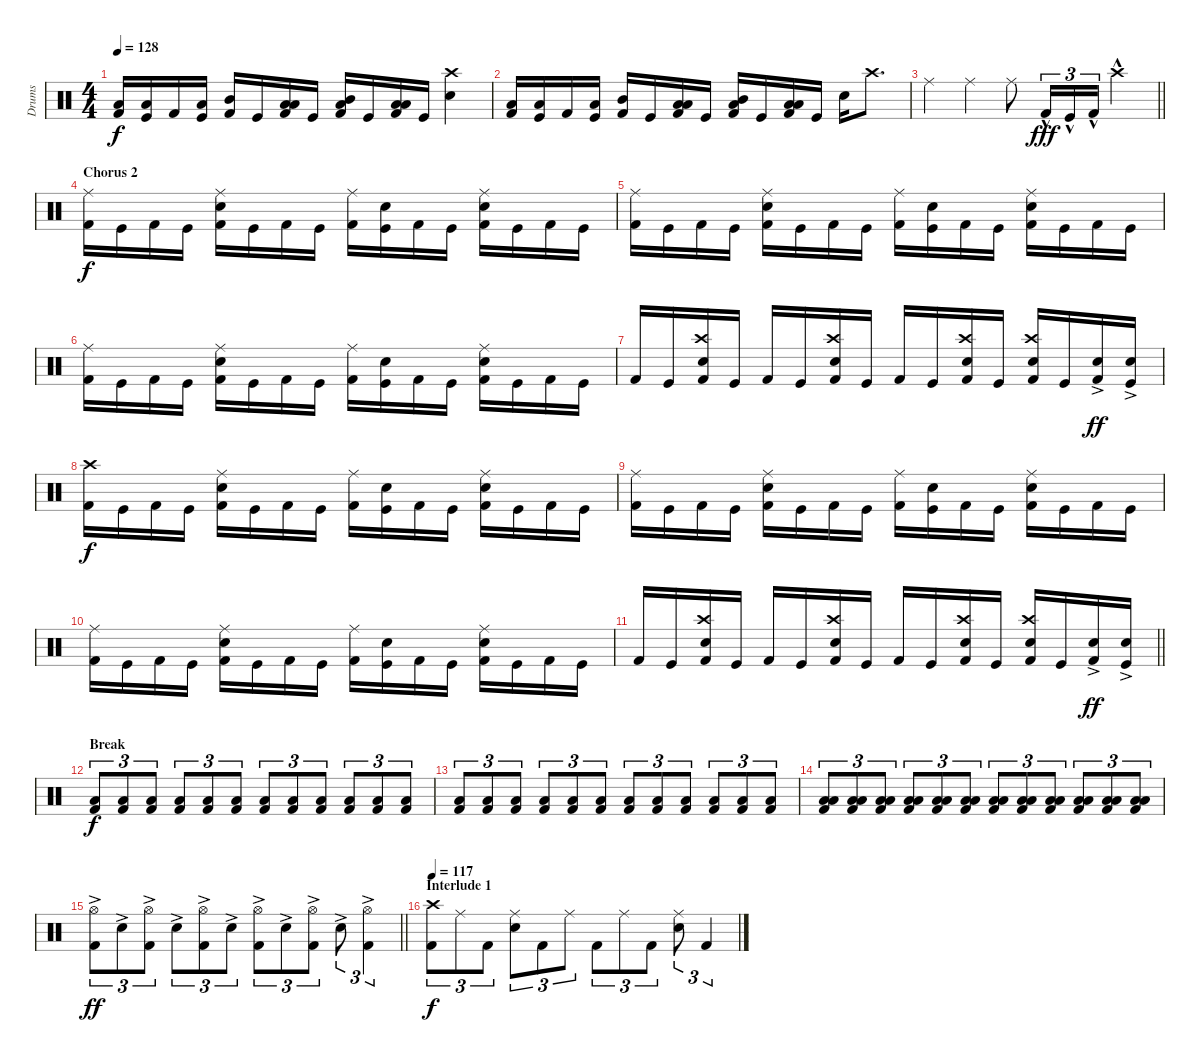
\track ("Drums" "Drums") {instrument percussion}
\staff {score}
\articulation defaults
\ts (4 4)
\tempo 128
\clef neutral
\ks c
("Low Floor Tom (hit)" "Kick (hit) 2").16{dy f} ("Low Tom (hit)" "Kick (hit)").16 "Kick (hit) 2".16 ("Low Floor Tom (hit)" "Kick (hit)").16 ("Mid Tom (hit)" "Kick (hit) 2").16 "Kick (hit)".16 ("Low Tom (hit)" "Low Floor Tom (hit)" "Kick (hit) 2").16 "Kick (hit)".16 ("Mid Tom (hit)" "Low Tom (hit)" "Kick (hit) 2").16 "Kick (hit)".16 ("Low Tom (hit)" "Low Floor Tom (hit)" "Kick (hit) 2").16 "Kick (hit)".16 ("Crash high (hit)" "Electric Snare (hit)").4 |
("Low Floor Tom (hit)" "Kick (hit) 2").16 ("Low Tom (hit)" "Kick (hit)").16 "Kick (hit) 2".16 ("Low Floor Tom (hit)" "Kick (hit)").16 ("Mid Tom (hit)" "Kick (hit) 2").16 "Kick (hit)".16 ("Low Tom (hit)" "Low Floor Tom (hit)" "Kick (hit) 2").16 "Kick (hit)".16 ("Mid Tom (hit)" "Low Tom (hit)" "Kick (hit) 2").16 "Kick (hit)".16 ("Low Tom (hit)" "Low Floor Tom (hit)" "Kick (hit) 2").16 "Kick (hit)".16 "Electric Snare (hit)".16 "Crash high (hit)".8{d} |
\barLineRight lightlight "Ride (middle)".4 "Ride (middle)".4 "Ride (middle)".8 "Kick (hit) 2"{hac}.16{tu (3 2) dy fff} "Kick (hit)"{hac}.16{tu (3 2)} "Kick (hit) 2"{hac}.16{tu (3 2)} "Crash high (hit)"{hac}.4
|
\section ("" "Chorus 2")
("Ride (middle)" "Kick (hit) 2").16{dy f} "Kick (hit)".16 "Kick (hit) 2".16 "Kick (hit)".16 ("Ride (middle)" "Electric Snare (hit)" "Kick (hit) 2").16 "Kick (hit)".16 "Kick (hit) 2".16 "Kick (hit)".16 ("Ride (middle)" "Kick (hit) 2").16 ("Electric Snare (hit)" "Kick (hit)").16 "Kick (hit) 2".16 "Kick (hit)".16 ("Ride (middle)" "Electric Snare (hit)" "Kick (hit) 2").16 "Kick (hit)".16 "Kick (hit) 2".16 "Kick (hit)".16 |
("Ride (middle)" "Kick (hit) 2").16 "Kick (hit)".16 "Kick (hit) 2".16 "Kick (hit)".16 ("Ride (middle)" "Electric Snare (hit)" "Kick (hit) 2").16 "Kick (hit)".16 "Kick (hit) 2".16 "Kick (hit)".16 ("Ride (middle)" "Kick (hit) 2").16 ("Electric Snare (hit)" "Kick (hit)").16 "Kick (hit) 2".16 "Kick (hit)".16 ("Ride (middle)" "Electric Snare (hit)" "Kick (hit) 2").16 "Kick (hit)".16 "Kick (hit) 2".16 "Kick (hit)".16 |
("Ride (middle)" "Kick (hit) 2").16 "Kick (hit)".16 "Kick (hit) 2".16 "Kick (hit)".16 ("Ride (middle)" "Electric Snare (hit)" "Kick (hit) 2").16 "Kick (hit)".16 "Kick (hit) 2".16 "Kick (hit)".16 ("Ride (middle)" "Kick (hit) 2").16 ("Electric Snare (hit)" "Kick (hit)").16 "Kick (hit) 2".16 "Kick (hit)".16 ("Ride (middle)" "Electric Snare (hit)" "Kick (hit) 2").16 "Kick (hit)".16 "Kick (hit) 2".16 "Kick (hit)".16 |
"Kick (hit) 2".16 "Kick (hit)".16 ("Crash high (hit)" "Electric Snare (hit)" "Kick (hit) 2").16 "Kick (hit)".16 "Kick (hit) 2".16 "Kick (hit)".16 ("Crash high (hit)" "Electric Snare (hit)" "Kick (hit) 2").16 "Kick (hit)".16 "Kick (hit) 2".16 "Kick (hit)".16 ("Crash high (hit)" "Electric Snare (hit)" "Kick (hit) 2").16 "Kick (hit)".16 ("Crash high (hit)" "Electric Snare (hit)" "Kick (hit) 2").16 "Kick (hit)".16 ("Electric Snare (hit)"{ac} "Kick (hit) 2").16{dy ff} ("Electric Snare (hit)"{ac} "Kick (hit)").16 |
("Crash high (hit)" "Kick (hit) 2").16{dy f} "Kick (hit)".16 "Kick (hit) 2".16 "Kick (hit)".16 ("Ride (middle)" "Electric Snare (hit)" "Kick (hit) 2").16 "Kick (hit)".16 "Kick (hit) 2".16 "Kick (hit)".16 ("Ride (middle)" "Kick (hit) 2").16 ("Electric Snare (hit)" "Kick (hit)").16 "Kick (hit) 2".16 "Kick (hit)".16 ("Ride (middle)" "Electric Snare (hit)" "Kick (hit) 2").16 "Kick (hit)".16 "Kick (hit) 2".16 "Kick (hit)".16 |
("Ride (middle)" "Kick (hit) 2").16 "Kick (hit)".16 "Kick (hit) 2".16 "Kick (hit)".16 ("Ride (middle)" "Electric Snare (hit)" "Kick (hit) 2").16 "Kick (hit)".16 "Kick (hit) 2".16 "Kick (hit)".16 ("Ride (middle)" "Kick (hit) 2").16 ("Electric Snare (hit)" "Kick (hit)").16 "Kick (hit) 2".16 "Kick (hit)".16 ("Ride (middle)" "Electric Snare (hit)" "Kick (hit) 2").16 "Kick (hit)".16 "Kick (hit) 2".16 "Kick (hit)".16 |
("Ride (middle)" "Kick (hit) 2").16 "Kick (hit)".16 "Kick (hit) 2".16 "Kick (hit)".16 ("Ride (middle)" "Electric Snare (hit)" "Kick (hit) 2").16 "Kick (hit)".16 "Kick (hit) 2".16 "Kick (hit)".16 ("Ride (middle)" "Kick (hit) 2").16 ("Electric Snare (hit)" "Kick (hit)").16 "Kick (hit) 2".16 "Kick (hit)".16 ("Ride (middle)" "Electric Snare (hit)" "Kick (hit) 2").16 "Kick (hit)".16 "Kick (hit) 2".16 "Kick (hit)".16 |
\barLineRight lightlight "Kick (hit) 2".16 "Kick (hit)".16
("Crash high (hit)" "Electric Snare (hit)" "Kick (hit) 2").16 "Kick (hit)".16 "Kick (hit) 2".16 "Kick (hit)".16 ("Crash high (hit)" "Electric Snare (hit)" "Kick (hit) 2").16 "Kick (hit)".16 "Kick (hit) 2".16 "Kick (hit)".16 ("Crash high (hit)" "Electric Snare (hit)" "Kick (hit) 2").16 "Kick (hit)".16 ("Crash high (hit)" "Electric Snare (hit)" "Kick (hit) 2").16 "Kick (hit)".16 ("Electric Snare (hit)"{ac} "Kick (hit) 2").16{dy ff} ("Electric Snare (hit)"{ac} "Kick (hit)").16 |
\section ("" "Break")
("Low Floor Tom (hit)" "Kick (hit) 2").8{tu (3 2) dy f} ("Low Floor Tom (hit)" "Kick (hit) 2").8{tu (3 2)} ("Low Floor Tom (hit)" "Kick (hit) 2").8{tu (3 2)} ("Low Floor Tom (hit)" "Kick (hit) 2").8{tu (3 2)} ("Low Floor Tom (hit)" "Kick (hit) 2").8{tu (3 2)} ("Low Floor Tom (hit)" "Kick (hit) 2").8{tu (3 2)} ("Low Floor Tom (hit)" "Kick (hit) 2").8{tu (3 2)} ("Low Floor Tom (hit)" "Kick (hit) 2").8{tu (3 2)} ("Low Floor Tom (hit)" "Kick (hit) 2").8{tu (3 2)} ("Low Floor Tom (hit)" "Kick (hit) 2").8{tu (3 2)} ("Low Floor Tom (hit)" "Kick (hit) 2").8{tu (3 2)} ("Low Floor Tom (hit)" "Kick (hit) 2").8{tu (3 2)} |
("Low Floor Tom (hit)" "Kick (hit) 2").8{tu (3 2)} ("Low Floor Tom (hit)" "Kick (hit) 2").8{tu (3 2)} ("Low Floor Tom (hit)" "Kick (hit) 2").8{tu (3 2)} ("Low Floor Tom (hit)" "Kick (hit) 2").8{tu (3 2)} ("Low Floor Tom (hit)" "Kick (hit) 2").8{tu (3 2)} ("Low Floor Tom (hit)" "Kick (hit) 2").8{tu (3 2)} ("Low Floor Tom (hit)" "Kick (hit) 2").8{tu (3 2)} ("Low Floor Tom (hit)" "Kick (hit) 2").8{tu (3 2)} ("Low Floor Tom (hit)" "Kick (hit) 2").8{tu (3 2)} ("Low Floor Tom (hit)" "Kick (hit) 2").8{tu (3 2)} ("Low Floor Tom (hit)" "Kick (hit) 2").8{tu (3 2)} ("Low Floor Tom (hit)" "Kick (hit) 2").8{tu (3 2)} |
("Low Tom (hit)" "Low Floor Tom (hit)" "Kick (hit) 2").8{tu (3 2)} ("Low Tom (hit)" "Low Floor Tom (hit)" "Kick (hit) 2").8{tu (3 2)} ("Low Tom (hit)" "Low Floor Tom (hit)" "Kick (hit) 2").8{tu (3 2)} ("Low Tom (hit)" "Low Floor Tom (hit)" "Kick (hit) 2").8{tu (3 2)} ("Low Tom (hit)" "Low Floor Tom (hit)" "Kick (hit) 2").8{tu (3 2)} ("Low Tom (hit)" "Low Floor Tom (hit)" "Kick (hit) 2").8{tu (3 2)} ("Low Tom (hit)" "Low Floor Tom (hit)" "Kick (hit) 2").8{tu (3 2)} ("Low Tom (hit)" "Low Floor Tom (hit)" "Kick (hit) 2").8{tu (3 2)} ("Low Tom (hit)" "Low Floor Tom (hit)" "Kick (hit) 2").8{tu (3 2)} ("Low Tom (hit)" "Low Floor Tom (hit)" "Kick (hit) 2").8{tu (3 2)} ("Low Tom (hit)" "Low Floor Tom (hit)" "Kick (hit) 2").8{tu (3 2)} ("Low Tom (hit)" "Low Floor Tom (hit)" "Kick (hit) 2").8{tu (3 2)} |
\barLineRight lightlight
("Hi-Hat (open)"{ac} "Kick (hit) 2"{ac}).8{tu (3 2) dy ff} "Electric Snare (hit)"{ac}.8{tu (3 2)} ("Hi-Hat (open)"{ac} "Kick (hit) 2"{ac}).8{tu (3 2)} "Electric Snare (hit)"{ac}.8{tu (3 2)} ("Hi-Hat (open)"{ac} "Kick (hit) 2"{ac}).8{tu (3 2)} "Electric Snare (hit)"{ac}.8{tu (3 2)} ("Hi-Hat (open)"{ac} "Kick (hit) 2"{ac}).8{tu (3 2)} "Electric Snare (hit)"{ac}.8{tu (3 2)} ("Hi-Hat (open)"{ac} "Kick (hit) 2"{ac}).8{tu (3 2)} "Electric Snare (hit)"{ac}.8{tu (3 2)} ("Hi-Hat (open)"{ac} "Kick (hit) 2"{ac}).4{tu (3 2)} |
\section ("" "Interlude 1")
\tempo 117
("Crash high (hit)" "Kick (hit) 2").8{tu (3 2) dy f} "Ride (middle)".8{tu (3 2)} "Kick (hit) 2".8{tu (3 2)} ("Ride (middle)" "Electric Snare (hit)").8{tu (3 2)} "Kick (hit) 2".8{tu (3 2)} "Ride (middle)".8{tu (3 2)} "Kick (hit) 2".8{tu (3 2)} "Ride (middle)".8{tu (3 2)} "Kick (hit) 2".8{tu (3 2)} ("Ride (middle)" "Electric Snare (hit)").8{tu (3 2)} "Kick (hit) 2".4{tu (3 2)}
